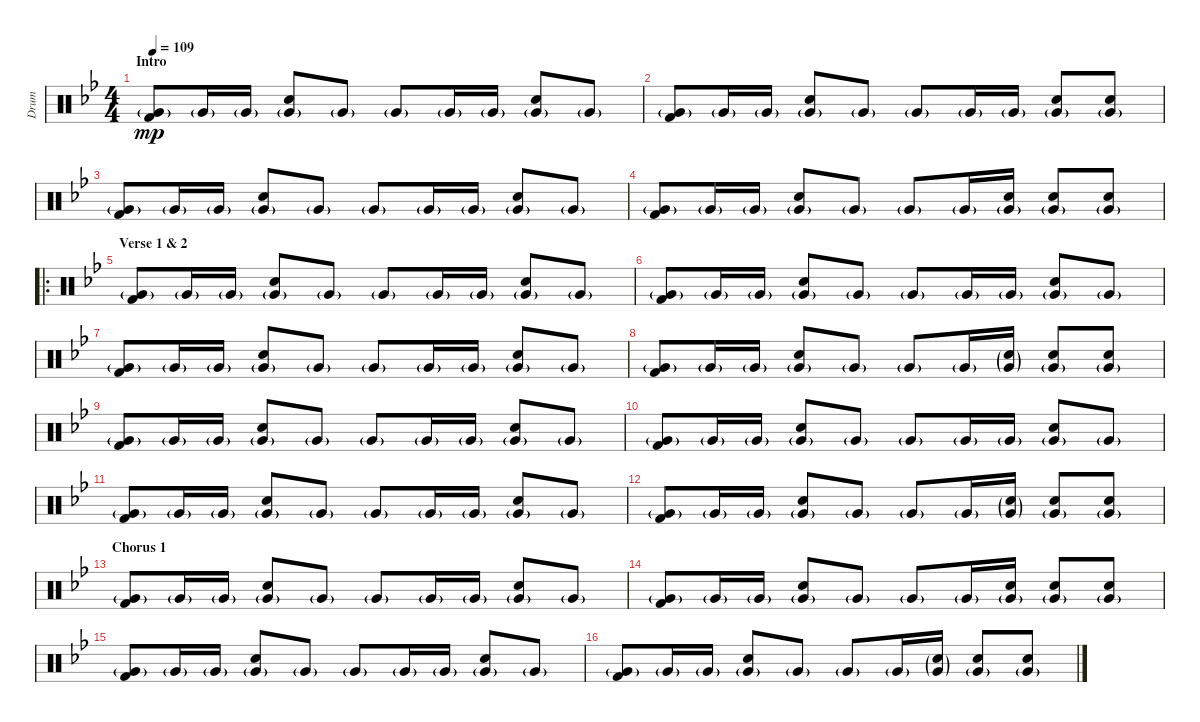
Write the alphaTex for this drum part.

\track ("Drum" "Drum") {instrument percussion}
\staff {score}
\articulation defaults
\ts (4 4)
\section ("" "Intro")
\tempo 109
\clef neutral
\ks bb
("Very Low Tom (hit)"{g} "Kick (hit) 2").8{dy mp} "Very Low Tom (hit)"{g}.16 "Very Low Tom (hit)"{g}.16 ("Very Low Tom (hit)"{g} "Snare (hit) 2").8 "Very Low Tom (hit)"{g}.8 "Very Low Tom (hit)"{g}.8 "Very Low Tom (hit)"{g}.16 "Very Low Tom (hit)"{g}.16 ("Very Low Tom (hit)"{g} "Snare (hit) 2").8 "Very Low Tom (hit)"{g}.8 |
("Very Low Tom (hit)"{g} "Kick (hit) 2").8 "Very Low Tom (hit)"{g}.16 "Very Low Tom (hit)"{g}.16 ("Very Low Tom (hit)"{g} "Snare (hit) 2").8 "Very Low Tom (hit)"{g}.8 "Very Low Tom (hit)"{g}.8 "Very Low Tom (hit)"{g}.16 "Very Low Tom (hit)"{g}.16 ("Very Low Tom (hit)"{g} "Snare (hit) 2").8 ("Very Low Tom (hit)"{g} "Snare (hit) 2").8 |
("Very Low Tom (hit)"{g} "Kick (hit) 2").8 "Very Low Tom (hit)"{g}.16 "Very Low Tom (hit)"{g}.16 ("Very Low Tom (hit)"{g} "Snare (hit) 2").8 "Very Low Tom (hit)"{g}.8 "Very Low Tom (hit)"{g}.8 "Very Low Tom (hit)"{g}.16 "Very Low Tom (hit)"{g}.16 ("Very Low Tom (hit)"{g} "Snare (hit) 2").8 "Very Low Tom (hit)"{g}.8 |
("Very Low Tom (hit)"{g} "Kick (hit) 2").8 "Very Low Tom (hit)"{g}.16 "Very Low Tom (hit)"{g}.16 ("Very Low Tom (hit)"{g} "Snare (hit) 2").8 "Very Low Tom (hit)"{g}.8 "Very Low Tom (hit)"{g}.8 "Very Low Tom (hit)"{g}.16 ("Very Low Tom (hit)"{g} "Snare (hit) 2").16 ("Very Low Tom (hit)"{g} "Snare (hit) 2").8 ("Very Low Tom (hit)"{g} "Snare (hit) 2").8 |
\ro
\section ("" "Verse 1 & 2")
("Very Low Tom (hit)"{g} "Kick (hit) 2").8 "Very Low Tom (hit)"{g}.16 "Very Low Tom (hit)"{g}.16 ("Very Low Tom (hit)"{g} "Snare (hit) 2").8 "Very Low Tom (hit)"{g}.8 "Very Low Tom (hit)"{g}.8 "Very Low Tom (hit)"{g}.16 "Very Low Tom (hit)"{g}.16 ("Very Low Tom (hit)"{g} "Snare (hit) 2").8 "Very Low Tom (hit)"{g}.8 |
("Very Low Tom (hit)"{g} "Kick (hit) 2").8 "Very Low Tom (hit)"{g}.16 "Very Low Tom (hit)"{g}.16 ("Very Low Tom (hit)"{g} "Snare (hit) 2").8 "Very Low Tom (hit)"{g}.8 "Very Low Tom (hit)"{g}.8 "Very Low Tom (hit)"{g}.16 "Very Low Tom (hit)"{g}.16 ("Very Low Tom (hit)"{g} "Snare (hit) 2").8 "Very Low Tom (hit)"{g}.8 |
("Very Low Tom (hit)"{g} "Kick (hit) 2").8 "Very Low Tom (hit)"{g}.16 "Very Low Tom (hit)"{g}.16 ("Very Low Tom (hit)"{g} "Snare (hit) 2").8 "Very Low Tom (hit)"{g}.8 "Very Low Tom (hit)"{g}.8 "Very Low Tom (hit)"{g}.16 "Very Low Tom (hit)"{g}.16 ("Very Low Tom (hit)"{g} "Snare (hit) 2").8 "Very Low Tom (hit)"{g}.8 |
("Very Low Tom (hit)"{g} "Kick (hit) 2").8 "Very Low Tom (hit)"{g}.16 "Very Low Tom (hit)"{g}.16 ("Very Low Tom (hit)"{g} "Snare (hit) 2").8 "Very Low Tom (hit)"{g}.8 "Very Low Tom (hit)"{g}.8 "Very Low Tom (hit)"{g}.16 ("Very Low Tom (hit)"{g} "Snare (hit) 2"{g}).16 ("Very Low Tom (hit)"{g} "Snare (hit) 2").8 ("Very Low Tom (hit)"{g} "Snare (hit) 2").8 |
("Very Low Tom (hit)"{g} "Kick (hit) 2").8 "Very Low Tom (hit)"{g}.16 "Very Low Tom (hit)"{g}.16 ("Very Low Tom (hit)"{g} "Snare (hit) 2").8 "Very Low Tom (hit)"{g}.8 "Very Low Tom (hit)"{g}.8 "Very Low Tom (hit)"{g}.16 "Very Low Tom (hit)"{g}.16 ("Very Low Tom (hit)"{g} "Snare (hit) 2").8 "Very Low Tom (hit)"{g}.8 |
("Very Low Tom (hit)"{g} "Kick (hit) 2").8 "Very Low Tom (hit)"{g}.16 "Very Low Tom (hit)"{g}.16 ("Very Low Tom (hit)"{g} "Snare (hit) 2").8 "Very Low Tom (hit)"{g}.8 "Very Low Tom (hit)"{g}.8 "Very Low Tom (hit)"{g}.16 "Very Low Tom (hit)"{g}.16 ("Very Low Tom (hit)"{g} "Snare (hit) 2").8 "Very Low Tom (hit)"{g}.8 |
("Very Low Tom (hit)"{g} "Kick (hit) 2").8 "Very Low Tom (hit)"{g}.16 "Very Low Tom (hit)"{g}.16 ("Very Low Tom (hit)"{g} "Snare (hit) 2").8 "Very Low Tom (hit)"{g}.8 "Very Low Tom (hit)"{g}.8 "Very Low Tom (hit)"{g}.16 "Very Low Tom (hit)"{g}.16 ("Very Low Tom (hit)"{g} "Snare (hit) 2").8 "Very Low Tom (hit)"{g}.8 |
("Very Low Tom (hit)"{g} "Kick (hit) 2").8 "Very Low Tom (hit)"{g}.16 "Very Low Tom (hit)"{g}.16 ("Very Low Tom (hit)"{g} "Snare (hit) 2").8 "Very Low Tom (hit)"{g}.8 "Very Low Tom (hit)"{g}.8 "Very Low Tom (hit)"{g}.16 ("Very Low Tom (hit)"{g} "Snare (hit) 2"{g}).16 ("Very Low Tom (hit)"{g} "Snare (hit) 2").8 ("Very Low Tom (hit)"{g} "Snare (hit) 2").8 |
\section ("" "Chorus 1")
("Very Low Tom (hit)"{g} "Kick (hit) 2").8 "Very Low Tom (hit)"{g}.16 "Very Low Tom (hit)"{g}.16 ("Very Low Tom (hit)"{g} "Snare (hit) 2").8 "Very Low Tom (hit)"{g}.8 "Very Low Tom (hit)"{g}.8 "Very Low Tom (hit)"{g}.16 "Very Low Tom (hit)"{g}.16 ("Very Low Tom (hit)"{g} "Snare (hit) 2").8 "Very Low Tom (hit)"{g}.8 |
("Very Low Tom (hit)"{g} "Kick (hit) 2").8 "Very Low Tom (hit)"{g}.16 "Very Low Tom (hit)"{g}.16 ("Very Low Tom (hit)"{g} "Snare (hit) 2").8 "Very Low Tom (hit)"{g}.8 "Very Low Tom (hit)"{g}.8 "Very Low Tom (hit)"{g}.16 ("Very Low Tom (hit)"{g} "Snare (hit) 2").16 ("Very Low Tom (hit)"{g} "Snare (hit) 2").8 ("Very Low Tom (hit)"{g} "Snare (hit) 2").8 |
("Very Low Tom (hit)"{g} "Kick (hit) 2").8 "Very Low Tom (hit)"{g}.16 "Very Low Tom (hit)"{g}.16 ("Very Low Tom (hit)"{g} "Snare (hit) 2").8 "Very Low Tom (hit)"{g}.8 "Very Low Tom (hit)"{g}.8 "Very Low Tom (hit)"{g}.16 "Very Low Tom (hit)"{g}.16 ("Very Low Tom (hit)"{g} "Snare (hit) 2").8 "Very Low Tom (hit)"{g}.8 |
("Very Low Tom (hit)"{g} "Kick (hit) 2").8 "Very Low Tom (hit)"{g}.16 "Very Low Tom (hit)"{g}.16 ("Very Low Tom (hit)"{g} "Snare (hit) 2").8 "Very Low Tom (hit)"{g}.8 "Very Low Tom (hit)"{g}.8 "Very Low Tom (hit)"{g}.16 ("Very Low Tom (hit)"{g} "Snare (hit) 2"{g}).16 ("Very Low Tom (hit)"{g} "Snare (hit) 2").8 ("Very Low Tom (hit)"{g} "Snare (hit) 2").8
